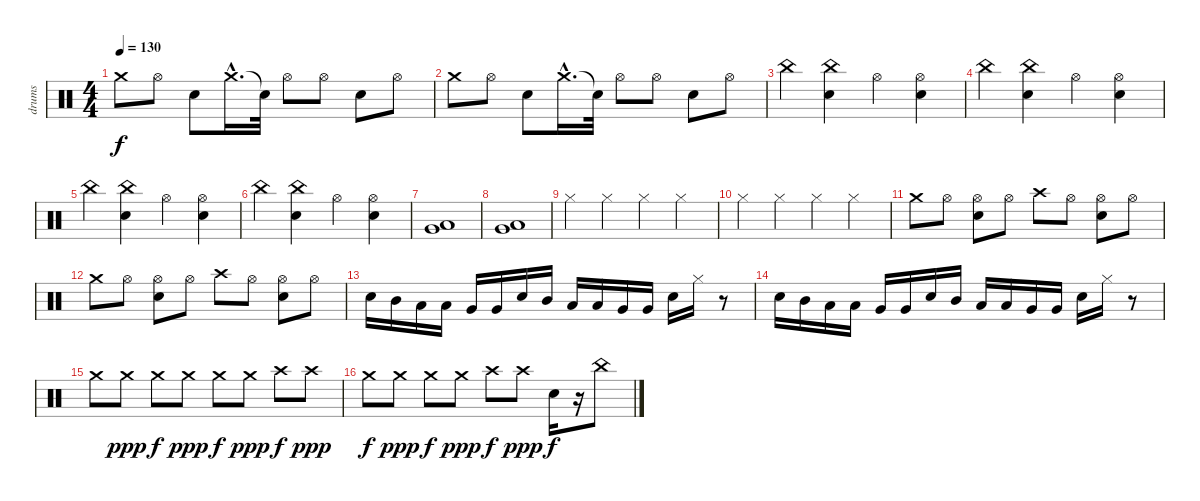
\track ("drums" "drums") {instrument percussion}
\staff {score}
\articulation defaults
\ts (4 4)
\tempo 130
\clef neutral
\ks c "Crash medium (hit)".8{dy f} "Hi-Hat (open)".8 "Snare (hit) 2".8 "Crash medium (hit)"{hac}.16{d} "Snare (hit)"{t}.32 "Hi-Hat (open)".8 "Hi-Hat (open)".8 "Snare (hit) 2".8 "Hi-Hat (open)".8
|
"Crash medium (hit)".8 "Hi-Hat (open)".8 "Snare (hit) 2".8 "Crash medium (hit)"{hac}.16{d} "Snare (hit)"{t}.32 "Hi-Hat (open)".8 "Hi-Hat (open)".8 "Snare (hit) 2".8 "Hi-Hat (open)".8 |
"China (hit)".4 ("China (hit)" "Snare (hit) 2").4 "Hi-Hat (open)".4 ("Snare (hit) 2" "Hi-Hat (open)").4 |
"China (hit)".4 ("China (hit)" "Snare (hit) 2").4 "Hi-Hat (open)".4 ("Snare (hit) 2" "Hi-Hat (open)").4 |
"China (hit)".4 ("China (hit)" "Snare (hit) 2").4 "Hi-Hat (open)".4 ("Snare (hit) 2" "Hi-Hat (open)").4 |
"China (hit)".4 ("China (hit)" "Snare (hit) 2").4 "Hi-Hat (open)".4 ("Snare (hit) 2" "Hi-Hat (open)").4 |
("Very Low Tom (hit)" "Low Floor Tom (hit)").1 |
("Very Low Tom (hit)" "Low Floor Tom (hit)").1 |
"Hi-Hat (closed)".4 "Hi-Hat (closed)".4 "Hi-Hat (closed)".4 "Hi-Hat (closed)".4 |
"Hi-Hat (closed)".4 "Hi-Hat (closed)".4 "Hi-Hat (closed)".4 "Hi-Hat (closed)".4 |
"Crash medium (hit)".8 "Hi-Hat (open)".8 ("Snare (hit) 2" "Hi-Hat (open)").8 "Hi-Hat (open)".8 "Crash high (hit)".8 "Hi-Hat (open)".8 ("Snare (hit) 2" "Hi-Hat (open)").8 "Hi-Hat (open)".8 |
"Crash medium (hit)".8 "Hi-Hat (open)".8 ("Snare (hit) 2" "Hi-Hat (open)").8 "Hi-Hat (open)".8 "Crash high (hit)".8 "Hi-Hat (open)".8 ("Snare (hit) 2" "Hi-Hat (open)").8 "Hi-Hat (open)".8 |
"Snare (hit) 2".16 "Mid Tom (hit)".16 "Low Tom (hit)".16 "Low Tom (hit)".16 "Very Low Tom (hit)".16 "Very Low Tom (hit)".16 "Snare (hit) 2".16 "Mid Tom (hit)".16 "Low Tom (hit)".16 "Low Tom (hit)".16 "Very Low Tom (hit)".16 "Very Low Tom (hit)".16 "Snare (hit) 2".16 "Hi-Hat (closed)".16 r.8 |
"Snare (hit) 2".16 "Mid Tom (hit)".16 "Low Tom (hit)".16 "Low Tom (hit)".16 "Very Low Tom (hit)".16 "Very Low Tom (hit)".16 "Snare (hit) 2".16 "Mid Tom (hit)".16 "Low Tom (hit)".16 "Low Tom (hit)".16 "Very Low Tom (hit)".16 "Very Low Tom (hit)".16 "Snare (hit) 2".16 "Hi-Hat (closed)".16 r.8 |
"Crash medium (hit)".8 "Crash medium (hit)".8{dy ppp} "Crash medium (hit)".8{dy f} "Crash medium (hit)".8{dy ppp} "Crash medium (hit)".8{dy f} "Crash medium (hit)".8{dy ppp} "Crash high (hit)".8{dy f} "Crash high (hit)".8{dy ppp} |
"Crash medium (hit)".8{dy f} "Crash medium (hit)".8{dy ppp} "Crash medium (hit)".8{dy f} "Crash medium (hit)".8{dy ppp} "Crash high (hit)".8{dy f} "Crash high (hit)".8{dy ppp} "Snare (hit) 2".16{dy f} r.16 "China (hit)".8
